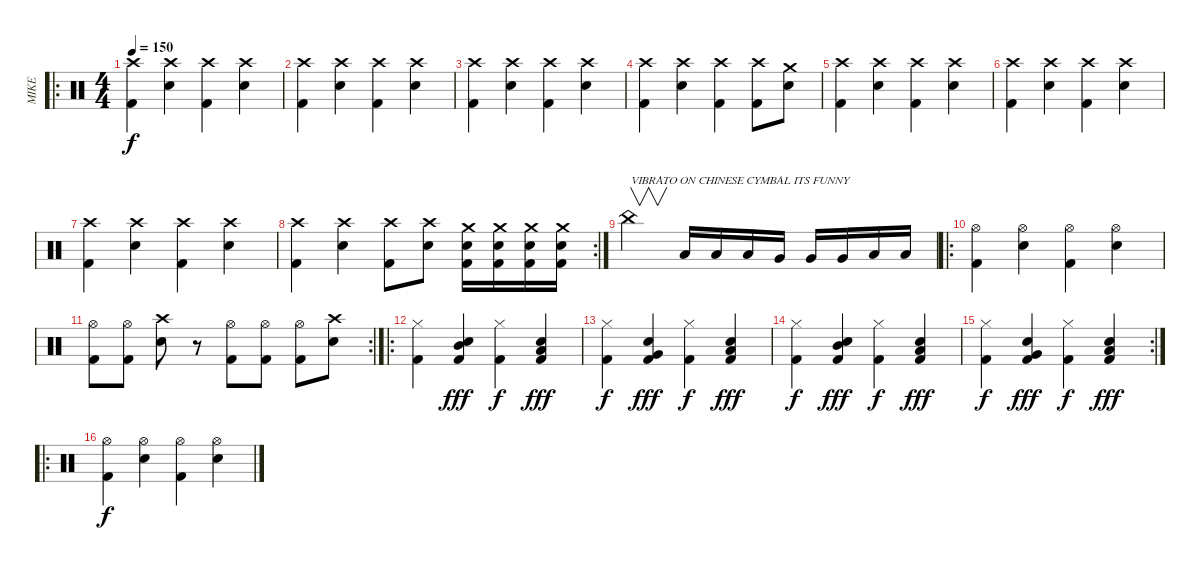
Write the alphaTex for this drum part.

\track ("MIKE" "MIKE") {instrument percussion}
\staff {score}
\articulation defaults
\ro
\ts (4 4)
\tempo 150
\clef neutral
\ks c
("Crash high (hit)" "Kick (hit) 2").4{dy f} ("Crash high (hit)" "Electric Snare (hit)").4 ("Crash high (hit)" "Kick (hit) 2").4 ("Crash high (hit)" "Electric Snare (hit)").4 |
("Crash high (hit)" "Kick (hit) 2").4 ("Crash high (hit)" "Electric Snare (hit)").4 ("Crash high (hit)" "Kick (hit) 2").4 ("Crash high (hit)" "Electric Snare (hit)").4 |
("Crash high (hit)" "Kick (hit) 2").4 ("Crash high (hit)" "Electric Snare (hit)").4 ("Crash high (hit)" "Kick (hit) 2").4 ("Crash high (hit)" "Electric Snare (hit)").4 |
("Crash high (hit)" "Kick (hit) 2").4 ("Crash high (hit)" "Electric Snare (hit)").4 ("Crash high (hit)" "Kick (hit) 2").4 ("Crash high (hit)" "Kick (hit) 2").8 ("Crash medium (hit)" "Electric Snare (hit)").8 |
("Crash high (hit)" "Kick (hit) 2").4 ("Crash high (hit)" "Electric Snare (hit)").4 ("Crash high (hit)" "Kick (hit) 2").4 ("Crash high (hit)" "Electric Snare (hit)").4 |
("Crash high (hit)" "Kick (hit) 2").4 ("Crash high (hit)" "Electric Snare (hit)").4 ("Crash high (hit)" "Kick (hit) 2").4 ("Crash high (hit)" "Electric Snare (hit)").4 |
("Crash high (hit)" "Kick (hit) 2").4 ("Crash high (hit)" "Electric Snare (hit)").4 ("Crash high (hit)" "Kick (hit) 2").4 ("Crash high (hit)" "Electric Snare (hit)").4 |
\rc 2
("Crash high (hit)" "Kick (hit) 2").4 ("Crash high (hit)" "Electric Snare (hit)").4 ("Crash high (hit)" "Kick (hit) 2").8 ("Crash high (hit)" "Electric Snare (hit)").8 ("Kick (hit) 2" "Crash medium (hit)" "Electric Snare (hit)").16 ("Kick (hit) 2" "Crash medium (hit)" "Electric Snare (hit)").16 ("Kick (hit) 2" "Crash medium (hit)" "Electric Snare (hit)").16 ("Kick (hit) 2" "Crash medium (hit)" "Electric Snare (hit)").16 |
"China (hit)".2{v txt "VIBRATO ON CHINESE CYMBAL ITS FUNNY"} "Low Tom (hit)".16 "Low Tom (hit)".16 "Low Tom (hit)".16 "Very Low Tom (hit)".16 "Very Low Tom (hit)".16 "Very Low Tom (hit)".16 "Low Floor Tom (hit)".16 "Low Floor Tom (hit)".16 |
\ro
("Hi-Hat (open)" "Kick (hit) 2").4 ("Hi-Hat (open)" "Electric Snare (hit)").4 ("Hi-Hat (open)" "Kick (hit) 2").4 ("Hi-Hat (open)" "Electric Snare (hit)").4 |
\rc 2
("Hi-Hat (open)" "Kick (hit) 2").8 ("Hi-Hat (open)" "Kick (hit) 2").8 ("Crash high (hit)" "Electric Snare (hit)").8 r.8 ("Hi-Hat (open)" "Kick (hit) 2").8 ("Hi-Hat (open)" "Kick (hit) 2").8 ("Hi-Hat (open)" "Kick (hit) 2").8 ("Crash high (hit)" "Electric Snare (hit)").8 |
\ro
("Hi-Hat (closed)" "Kick (hit) 2").4 ("Kick (hit) 2" "Mid Tom (hit)" "Electric Snare (hit)").4{dy fff} ("Hi-Hat (closed)" "Kick (hit) 2").4{dy f} ("Kick (hit) 2" "Low Tom (hit)" "Electric Snare (hit)").4{dy fff} |
("Hi-Hat (closed)" "Kick (hit) 2").4{dy f} ("Kick (hit) 2" "Very Low Tom (hit)" "Electric Snare (hit)").4{dy fff} ("Hi-Hat (closed)" "Kick (hit) 2").4{dy f} ("Kick (hit) 2" "Low Floor Tom (hit)" "Electric Snare (hit)").4{dy fff} |
("Hi-Hat (closed)" "Kick (hit) 2").4{dy f} ("Kick (hit) 2" "Mid Tom (hit)" "Electric Snare (hit)").4{dy fff} ("Hi-Hat (closed)" "Kick (hit) 2").4{dy f} ("Kick (hit) 2" "Low Tom (hit)" "Electric Snare (hit)").4{dy fff} |
\rc 2
("Hi-Hat (closed)" "Kick (hit) 2").4{dy f} ("Kick (hit) 2" "Very Low Tom (hit)" "Electric Snare (hit)").4{dy fff} ("Hi-Hat (closed)" "Kick (hit) 2").4{dy f} ("Kick (hit) 2" "Low Floor Tom (hit)" "Electric Snare (hit)").4{dy fff} |
\ro
("Hi-Hat (open)" "Kick (hit) 2").4{dy f} ("Hi-Hat (open)" "Electric Snare (hit)").4 ("Hi-Hat (open)" "Kick (hit) 2").4 ("Hi-Hat (open)" "Electric Snare (hit)").4
